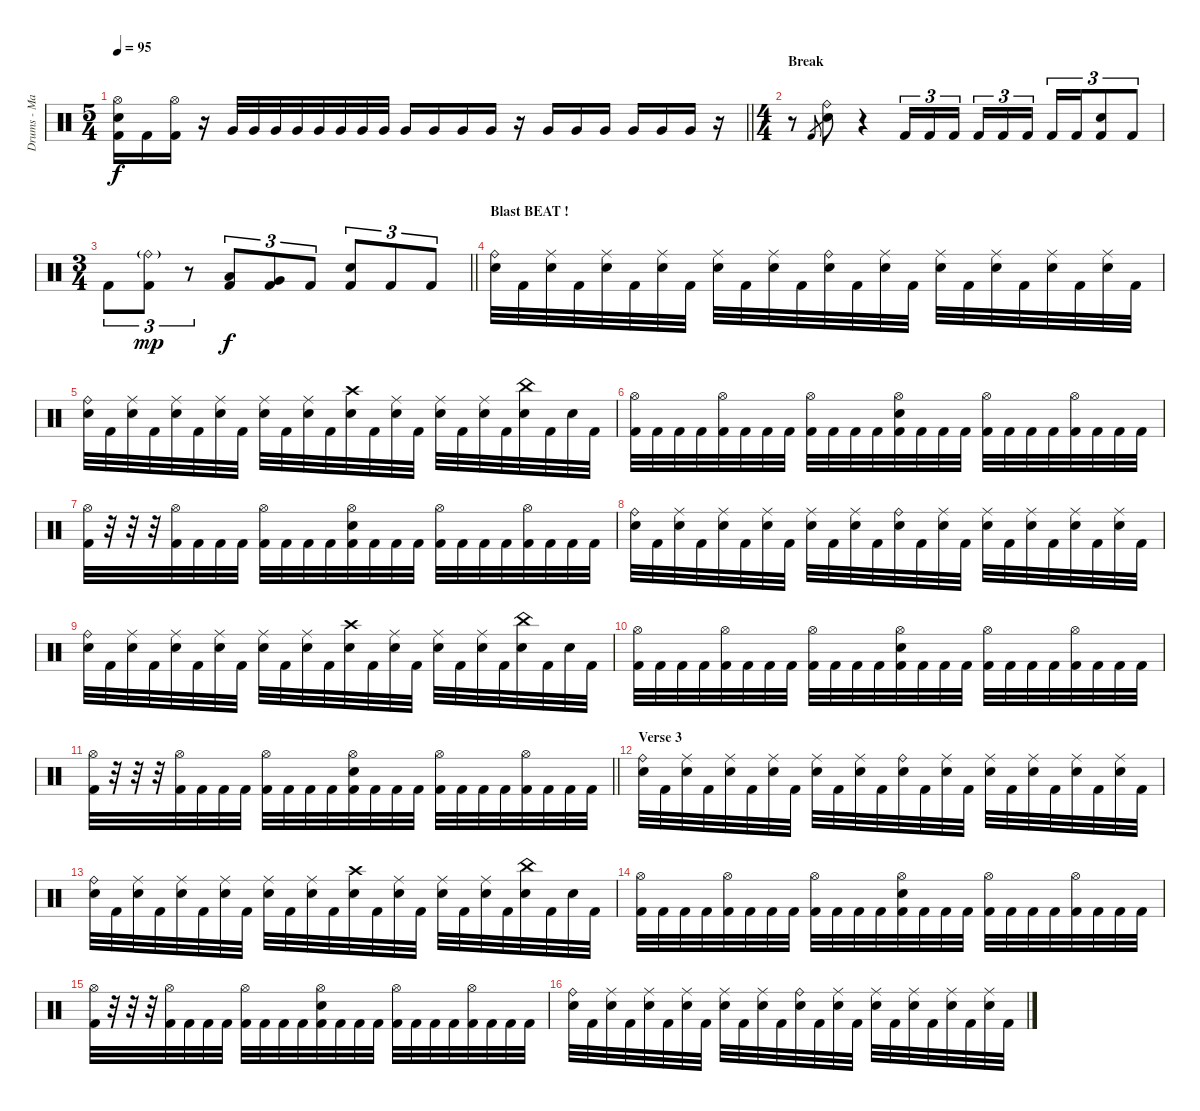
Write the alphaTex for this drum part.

\track ("Drums - Mario Duplantier" "Drums - Ma") {instrument percussion}
\staff {score}
\articulation defaults
\ts (5 4)
\tempo 95
\clef neutral
\barLineRight lightlight
\ks c
("Hi-Hat (open)" "Electric Snare (hit)" "Kick (hit) 2").16{dy f} "Kick (hit) 2".16 ("Hi-Hat (open)" "Kick (hit) 2").16 r.16 "Very Low Tom (hit)".32 "Very Low Tom (hit)".32 "Very Low Tom (hit)".32 "Very Low Tom (hit)".32 "Very Low Tom (hit)".32 "Very Low Tom (hit)".32 "Very Low Tom (hit)".32 "Very Low Tom (hit)".32 "Very Low Tom (hit)".16 "Very Low Tom (hit)".16 "Very Low Tom (hit)".16 "Very Low Tom (hit)".16 r.16 "Very Low Tom (hit)".16 "Very Low Tom (hit)".16 "Very Low Tom (hit)".16 "Very Low Tom (hit)".16 "Very Low Tom (hit)".16 "Very Low Tom (hit)".16 r.16 |
\ts (4 4)
\section ("" "Break")
r.8 "Kick (hit) 2".8{gr} ("Ride (bell)" "Electric Snare (hit)").8 r.4 "Kick (hit) 2".16{tu (3 2)} "Kick (hit) 2".16{tu (3 2)} "Kick (hit) 2".16{tu (3 2) beam splitsecondary} "Kick (hit) 2".16{tu (3 2)} "Kick (hit) 2".16{tu (3 2)} "Kick (hit) 2".16{tu (3 2)} "Kick (hit) 2".16{tu (3 2)} "Kick (hit) 2".16{tu (3 2)} ("Electric Snare (hit)" "Kick (hit) 2").8{tu (3 2)} "Kick (hit) 2".8{tu (3 2)} |
\ts (3 4)
\barLineRight lightlight "Kick (hit) 2".8{tu (3 2)}
("Ride (bell)"{g} "Kick (hit) 2").8{tu (3 2) dy mp} r.8{tu (3 2)} ("Low Tom (hit)" "Kick (hit) 2").8{tu (3 2) dy f} ("Very Low Tom (hit)" "Kick (hit) 2").8{tu (3 2)} "Kick (hit) 2".8{tu (3 2)} ("Electric Snare (hit)" "Kick (hit) 2").8{tu (3 2)} "Kick (hit) 2".8{tu (3 2)} "Kick (hit) 2".8{tu (3 2)} |
\section ("" "Blast BEAT !")
("Ride (bell)" "Electric Snare (hit)").32 "Kick (hit) 2".32 ("Ride (middle)" "Electric Snare (hit)").32 "Kick (hit) 2".32 ("Ride (middle)" "Electric Snare (hit)").32 "Kick (hit) 2".32 ("Ride (middle)" "Electric Snare (hit)").32 "Kick (hit) 2".32 ("Ride (middle)" "Electric Snare (hit)").32 "Kick (hit) 2".32 ("Ride (middle)" "Electric Snare (hit)").32 "Kick (hit) 2".32 ("Ride (bell)" "Electric Snare (hit)").32 "Kick (hit) 2".32 ("Ride (middle)" "Electric Snare (hit)").32 "Kick (hit) 2".32 ("Ride (middle)" "Electric Snare (hit)").32 "Kick (hit) 2".32 ("Ride (middle)" "Electric Snare (hit)").32 "Kick (hit) 2".32 ("Ride (middle)" "Electric Snare (hit)").32 "Kick (hit) 2".32 ("Ride (middle)" "Electric Snare (hit)").32 "Kick (hit) 2".32 |
("Ride (bell)" "Electric Snare (hit)").32 "Kick (hit) 2".32 ("Ride (middle)" "Electric Snare (hit)").32 "Kick (hit) 2".32 ("Ride (middle)" "Electric Snare (hit)").32 "Kick (hit) 2".32 ("Ride (middle)" "Electric Snare (hit)").32 "Kick (hit) 2".32 ("Ride (middle)" "Electric Snare (hit)").32 "Kick (hit) 2".32 ("Ride (middle)" "Electric Snare (hit)").32 "Kick (hit) 2".32 ("Crash high (hit)" "Electric Snare (hit)").32 "Kick (hit) 2".32 ("Ride (middle)" "Electric Snare (hit)").32 "Kick (hit) 2".32 ("Ride (middle)" "Electric Snare (hit)").32 "Kick (hit) 2".32 ("Ride (middle)" "Electric Snare (hit)").32 "Kick (hit) 2".32 ("China (hit)" "Electric Snare (hit)").32 "Kick (hit) 2".32 "Electric Snare (hit)".32 "Kick (hit) 2".32 |
("Hi-Hat (open)" "Kick (hit) 2").32 "Kick (hit) 2".32 "Kick (hit) 2".32 "Kick (hit) 2".32 ("Hi-Hat (open)" "Kick (hit) 2").32 "Kick (hit) 2".32 "Kick (hit) 2".32 "Kick (hit) 2".32 ("Hi-Hat (open)" "Kick (hit) 2").32 "Kick (hit) 2".32 "Kick (hit) 2".32 "Kick (hit) 2".32 ("Hi-Hat (open)" "Electric Snare (hit)" "Kick (hit) 2").32 "Kick (hit) 2".32 "Kick (hit) 2".32 "Kick (hit) 2".32 ("Hi-Hat (open)" "Kick (hit) 2").32 "Kick (hit) 2".32 "Kick (hit) 2".32 "Kick (hit) 2".32 ("Hi-Hat (open)" "Kick (hit) 2").32 "Kick (hit) 2".32 "Kick (hit) 2".32 "Kick (hit) 2".32 |
("Hi-Hat (open)" "Kick (hit) 2").32 r.32 r.32 r.32 ("Hi-Hat (open)" "Kick (hit) 2").32 "Kick (hit) 2".32 "Kick (hit) 2".32 "Kick (hit) 2".32 ("Hi-Hat (open)" "Kick (hit) 2").32 "Kick (hit) 2".32 "Kick (hit) 2".32 "Kick (hit) 2".32 ("Hi-Hat (open)" "Electric Snare (hit)" "Kick (hit) 2").32 "Kick (hit) 2".32 "Kick (hit) 2".32 "Kick (hit) 2".32 ("Hi-Hat (open)" "Kick (hit) 2").32 "Kick (hit) 2".32 "Kick (hit) 2".32 "Kick (hit) 2".32 ("Hi-Hat (open)" "Kick (hit) 2").32 "Kick (hit) 2".32 "Kick (hit) 2".32 "Kick (hit) 2".32 |
("Ride (bell)" "Electric Snare (hit)").32 "Kick (hit) 2".32 ("Ride (middle)" "Electric Snare (hit)").32 "Kick (hit) 2".32 ("Ride (middle)" "Electric Snare (hit)").32 "Kick (hit) 2".32 ("Ride (middle)" "Electric Snare (hit)").32 "Kick (hit) 2".32 ("Ride (middle)" "Electric Snare (hit)").32 "Kick (hit) 2".32 ("Ride (middle)" "Electric Snare (hit)").32 "Kick (hit) 2".32 ("Ride (bell)" "Electric Snare (hit)").32 "Kick (hit) 2".32 ("Ride (middle)" "Electric Snare (hit)").32 "Kick (hit) 2".32 ("Ride (middle)" "Electric Snare (hit)").32 "Kick (hit) 2".32 ("Ride (middle)" "Electric Snare (hit)").32 "Kick (hit) 2".32 ("Ride (middle)" "Electric Snare (hit)").32 "Kick (hit) 2".32 ("Ride (middle)" "Electric Snare (hit)").32 "Kick (hit) 2".32 |
("Ride (bell)" "Electric Snare (hit)").32 "Kick (hit) 2".32 ("Ride (middle)" "Electric Snare (hit)").32 "Kick (hit) 2".32 ("Ride (middle)" "Electric Snare (hit)").32 "Kick (hit) 2".32 ("Ride (middle)" "Electric Snare (hit)").32 "Kick (hit) 2".32 ("Ride (middle)" "Electric Snare (hit)").32 "Kick (hit) 2".32 ("Ride (middle)" "Electric Snare (hit)").32 "Kick (hit) 2".32 ("Crash high (hit)" "Electric Snare (hit)").32 "Kick (hit) 2".32 ("Ride (middle)" "Electric Snare (hit)").32 "Kick (hit) 2".32 ("Ride (middle)" "Electric Snare (hit)").32 "Kick (hit) 2".32 ("Ride (middle)" "Electric Snare (hit)").32 "Kick (hit) 2".32 ("China (hit)" "Electric Snare (hit)").32 "Kick (hit) 2".32 "Electric Snare (hit)".32 "Kick (hit) 2".32 |
("Hi-Hat (open)" "Kick (hit) 2").32 "Kick (hit) 2".32 "Kick (hit) 2".32 "Kick (hit) 2".32 ("Hi-Hat (open)" "Kick (hit) 2").32 "Kick (hit) 2".32 "Kick (hit) 2".32 "Kick (hit) 2".32 ("Hi-Hat (open)" "Kick (hit) 2").32 "Kick (hit) 2".32 "Kick (hit) 2".32 "Kick (hit) 2".32 ("Hi-Hat (open)" "Electric Snare (hit)" "Kick (hit) 2").32 "Kick (hit) 2".32 "Kick (hit) 2".32 "Kick (hit) 2".32 ("Hi-Hat (open)" "Kick (hit) 2").32 "Kick (hit) 2".32 "Kick (hit) 2".32 "Kick (hit) 2".32 ("Hi-Hat (open)" "Kick (hit) 2").32 "Kick (hit) 2".32 "Kick (hit) 2".32 "Kick (hit) 2".32 |
\barLineRight lightlight
("Hi-Hat (open)" "Kick (hit) 2").32 r.32 r.32 r.32 ("Hi-Hat (open)" "Kick (hit) 2").32 "Kick (hit) 2".32 "Kick (hit) 2".32 "Kick (hit) 2".32 ("Hi-Hat (open)" "Kick (hit) 2").32 "Kick (hit) 2".32 "Kick (hit) 2".32 "Kick (hit) 2".32 ("Hi-Hat (open)" "Electric Snare (hit)" "Kick (hit) 2").32 "Kick (hit) 2".32 "Kick (hit) 2".32 "Kick (hit) 2".32 ("Hi-Hat (open)" "Kick (hit) 2").32 "Kick (hit) 2".32 "Kick (hit) 2".32 "Kick (hit) 2".32 ("Hi-Hat (open)" "Kick (hit) 2").32 "Kick (hit) 2".32 "Kick (hit) 2".32 "Kick (hit) 2".32 |
\section ("" "Verse 3")
("Ride (bell)" "Electric Snare (hit)").32 "Kick (hit) 2".32 ("Ride (middle)" "Electric Snare (hit)").32 "Kick (hit) 2".32 ("Ride (middle)" "Electric Snare (hit)").32 "Kick (hit) 2".32 ("Ride (middle)" "Electric Snare (hit)").32 "Kick (hit) 2".32 ("Ride (middle)" "Electric Snare (hit)").32 "Kick (hit) 2".32 ("Ride (middle)" "Electric Snare (hit)").32 "Kick (hit) 2".32 ("Ride (bell)" "Electric Snare (hit)").32 "Kick (hit) 2".32 ("Ride (middle)" "Electric Snare (hit)").32 "Kick (hit) 2".32 ("Ride (middle)" "Electric Snare (hit)").32 "Kick (hit) 2".32 ("Ride (middle)" "Electric Snare (hit)").32 "Kick (hit) 2".32 ("Ride (middle)" "Electric Snare (hit)").32 "Kick (hit) 2".32 ("Ride (middle)" "Electric Snare (hit)").32 "Kick (hit) 2".32 |
("Ride (bell)" "Electric Snare (hit)").32 "Kick (hit) 2".32 ("Ride (middle)" "Electric Snare (hit)").32 "Kick (hit) 2".32 ("Ride (middle)" "Electric Snare (hit)").32 "Kick (hit) 2".32 ("Ride (middle)" "Electric Snare (hit)").32 "Kick (hit) 2".32 ("Ride (middle)" "Electric Snare (hit)").32 "Kick (hit) 2".32 ("Ride (middle)" "Electric Snare (hit)").32 "Kick (hit) 2".32 ("Crash high (hit)" "Electric Snare (hit)").32 "Kick (hit) 2".32 ("Ride (middle)" "Electric Snare (hit)").32 "Kick (hit) 2".32 ("Ride (middle)" "Electric Snare (hit)").32 "Kick (hit) 2".32 ("Ride (middle)" "Electric Snare (hit)").32 "Kick (hit) 2".32 ("China (hit)" "Electric Snare (hit)").32 "Kick (hit) 2".32 "Electric Snare (hit)".32 "Kick (hit) 2".32 |
("Hi-Hat (open)" "Kick (hit) 2").32 "Kick (hit) 2".32 "Kick (hit) 2".32 "Kick (hit) 2".32 ("Hi-Hat (open)" "Kick (hit) 2").32 "Kick (hit) 2".32 "Kick (hit) 2".32 "Kick (hit) 2".32 ("Hi-Hat (open)" "Kick (hit) 2").32 "Kick (hit) 2".32 "Kick (hit) 2".32 "Kick (hit) 2".32 ("Hi-Hat (open)" "Electric Snare (hit)" "Kick (hit) 2").32 "Kick (hit) 2".32 "Kick (hit) 2".32 "Kick (hit) 2".32 ("Hi-Hat (open)" "Kick (hit) 2").32 "Kick (hit) 2".32 "Kick (hit) 2".32 "Kick (hit) 2".32 ("Hi-Hat (open)" "Kick (hit) 2").32 "Kick (hit) 2".32 "Kick (hit) 2".32 "Kick (hit) 2".32 |
("Hi-Hat (open)" "Kick (hit) 2").32 r.32 r.32 r.32 ("Hi-Hat (open)" "Kick (hit) 2").32 "Kick (hit) 2".32 "Kick (hit) 2".32 "Kick (hit) 2".32 ("Hi-Hat (open)" "Kick (hit) 2").32 "Kick (hit) 2".32 "Kick (hit) 2".32 "Kick (hit) 2".32 ("Hi-Hat (open)" "Electric Snare (hit)" "Kick (hit) 2").32 "Kick (hit) 2".32 "Kick (hit) 2".32 "Kick (hit) 2".32 ("Hi-Hat (open)" "Kick (hit) 2").32 "Kick (hit) 2".32 "Kick (hit) 2".32 "Kick (hit) 2".32 ("Hi-Hat (open)" "Kick (hit) 2").32 "Kick (hit) 2".32 "Kick (hit) 2".32 "Kick (hit) 2".32 |
("Ride (bell)" "Electric Snare (hit)").32 "Kick (hit) 2".32 ("Ride (middle)" "Electric Snare (hit)").32 "Kick (hit) 2".32 ("Ride (middle)" "Electric Snare (hit)").32 "Kick (hit) 2".32 ("Ride (middle)" "Electric Snare (hit)").32 "Kick (hit) 2".32 ("Ride (middle)" "Electric Snare (hit)").32 "Kick (hit) 2".32 ("Ride (middle)" "Electric Snare (hit)").32 "Kick (hit) 2".32 ("Ride (bell)" "Electric Snare (hit)").32 "Kick (hit) 2".32 ("Ride (middle)" "Electric Snare (hit)").32 "Kick (hit) 2".32 ("Ride (middle)" "Electric Snare (hit)").32 "Kick (hit) 2".32 ("Ride (middle)" "Electric Snare (hit)").32 "Kick (hit) 2".32 ("Ride (middle)" "Electric Snare (hit)").32 "Kick (hit) 2".32 ("Ride (middle)" "Electric Snare (hit)").32 "Kick (hit) 2".32
